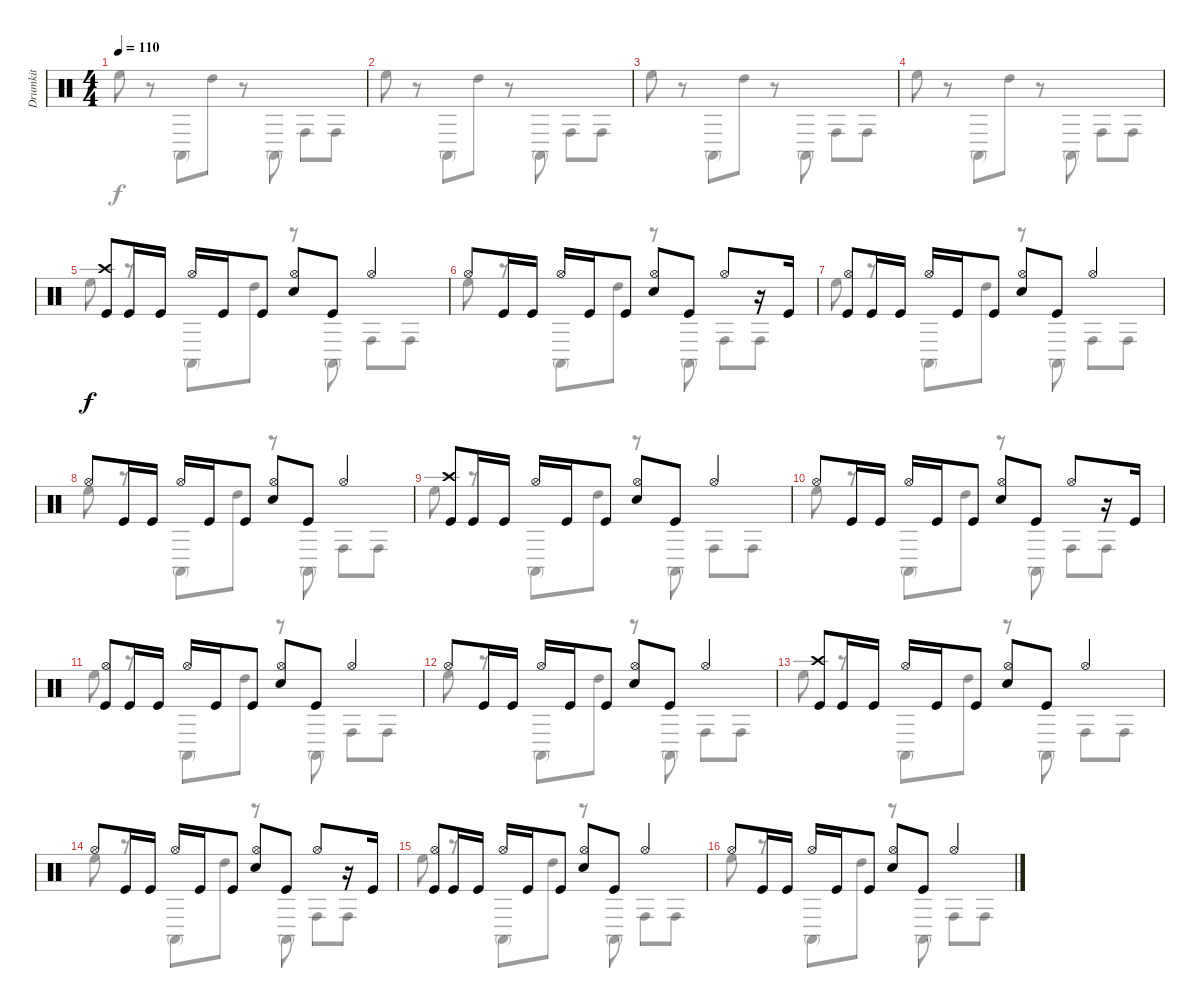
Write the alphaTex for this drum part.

\track ("Drumkit" "Drumkit") {instrument percussion}
\staff {score}
\articulation defaults
\voice
\ts (4 4)
\tempo 110
\clef neutral
\ks c
|
|
|
|
("Crash high (hit)" "Kick (hit)").8 "Kick (hit)".16 "Kick (hit)".16 "Hi-Hat (open)".16 "Kick (hit)".16 "Kick (hit)".8 ("Snare (hit) 2" "Hi-Hat (open)").8 "Kick (hit)".8 "Hi-Hat (open)".4 |
"Hi-Hat (open)".8 "Kick (hit)".16 "Kick (hit)".16 "Hi-Hat (open)".16 "Kick (hit)".16 "Kick (hit)".8 ("Snare (hit) 2" "Hi-Hat (open)").8 "Kick (hit)".8 "Hi-Hat (open)".8 r.16 "Kick (hit)".16 |
("Hi-Hat (open)" "Kick (hit)").8 "Kick (hit)".16 "Kick (hit)".16 "Hi-Hat (open)".16 "Kick (hit)".16 "Kick (hit)".8 ("Snare (hit) 2" "Hi-Hat (open)").8 "Kick (hit)".8 "Hi-Hat (open)".4 |
"Hi-Hat (open)".8 "Kick (hit)".16 "Kick (hit)".16 "Hi-Hat (open)".16 "Kick (hit)".16 "Kick (hit)".8 ("Snare (hit) 2" "Hi-Hat (open)").8 "Kick (hit)".8 "Hi-Hat (open)".4 |
("Crash high (hit)" "Kick (hit)").8 "Kick (hit)".16 "Kick (hit)".16 "Hi-Hat (open)".16 "Kick (hit)".16 "Kick (hit)".8 ("Snare (hit) 2" "Hi-Hat (open)").8 "Kick (hit)".8 "Hi-Hat (open)".4 |
"Hi-Hat (open)".8 "Kick (hit)".16 "Kick (hit)".16 "Hi-Hat (open)".16 "Kick (hit)".16 "Kick (hit)".8 ("Snare (hit) 2" "Hi-Hat (open)").8 "Kick (hit)".8 "Hi-Hat (open)".8 r.16 "Kick (hit)".16 |
("Hi-Hat (open)" "Kick (hit)").8 "Kick (hit)".16 "Kick (hit)".16 "Hi-Hat (open)".16 "Kick (hit)".16 "Kick (hit)".8 ("Snare (hit) 2" "Hi-Hat (open)").8 "Kick (hit)".8 "Hi-Hat (open)".4 |
"Hi-Hat (open)".8 "Kick (hit)".16 "Kick (hit)".16 "Hi-Hat (open)".16 "Kick (hit)".16 "Kick (hit)".8 ("Snare (hit) 2" "Hi-Hat (open)").8 "Kick (hit)".8 "Hi-Hat (open)".4 |
("Crash high (hit)" "Kick (hit)").8 "Kick (hit)".16 "Kick (hit)".16 "Hi-Hat (open)".16 "Kick (hit)".16 "Kick (hit)".8 ("Snare (hit) 2" "Hi-Hat (open)").8 "Kick (hit)".8 "Hi-Hat (open)".4 |
"Hi-Hat (open)".8 "Kick (hit)".16 "Kick (hit)".16 "Hi-Hat (open)".16 "Kick (hit)".16 "Kick (hit)".8 ("Snare (hit) 2" "Hi-Hat (open)").8 "Kick (hit)".8 "Hi-Hat (open)".8 r.16 "Kick (hit)".16 |
("Hi-Hat (open)" "Kick (hit)").8 "Kick (hit)".16 "Kick (hit)".16 "Hi-Hat (open)".16 "Kick (hit)".16 "Kick (hit)".8 ("Snare (hit) 2" "Hi-Hat (open)").8 "Kick (hit)".8 "Hi-Hat (open)".4 |
"Hi-Hat (open)".8 "Kick (hit)".16 "Kick (hit)".16 "Hi-Hat (open)".16 "Kick (hit)".16 "Kick (hit)".8 ("Snare (hit) 2" "Hi-Hat (open)").8 "Kick (hit)".8 "Hi-Hat (open)".4
\voice
\clef neutral
\ottava regular
\simile none
\ks c "High Floor Tom (hit)".8{dy f}
r.8 "Conga high (mute)".8 "High Tom (hit)".8 r.8 "Conga high (mute)".8 "Conga high (hit)".8 "Conga high (hit)".8 |
"High Floor Tom (hit)".8 r.8 "Conga high (mute)".8 "High Tom (hit)".8 r.8 "Conga high (mute)".8 "Conga high (hit)".8 "Conga high (hit)".8 |
"High Floor Tom (hit)".8 r.8 "Conga high (mute)".8 "High Tom (hit)".8 r.8 "Conga high (mute)".8 "Conga high (hit)".8 "Conga high (hit)".8 |
"High Floor Tom (hit)".8 r.8 "Conga high (mute)".8 "High Tom (hit)".8 r.8 "Conga high (mute)".8 "Conga high (hit)".8 "Conga high (hit)".8 |
"High Floor Tom (hit)".8 r.8 "Conga high (mute)".8 "High Tom (hit)".8 r.8 "Conga high (mute)".8 "Conga high (hit)".8 "Conga high (hit)".8 |
"High Floor Tom (hit)".8 r.8 "Conga high (mute)".8 "High Tom (hit)".8 r.8 "Conga high (mute)".8 "Conga high (hit)".8 "Conga high (hit)".8 |
"High Floor Tom (hit)".8 r.8 "Conga high (mute)".8 "High Tom (hit)".8 r.8 "Conga high (mute)".8 "Conga high (hit)".8 "Conga high (hit)".8 |
"High Floor Tom (hit)".8 r.8 "Conga high (mute)".8 "High Tom (hit)".8 r.8 "Conga high (mute)".8 "Conga high (hit)".8 "Conga high (hit)".8 |
"High Floor Tom (hit)".8 r.8 "Conga high (mute)".8 "High Tom (hit)".8 r.8 "Conga high (mute)".8 "Conga high (hit)".8 "Conga high (hit)".8 |
"High Floor Tom (hit)".8 r.8 "Conga high (mute)".8 "High Tom (hit)".8 r.8 "Conga high (mute)".8 "Conga high (hit)".8 "Conga high (hit)".8 |
"High Floor Tom (hit)".8 r.8 "Conga high (mute)".8 "High Tom (hit)".8 r.8 "Conga high (mute)".8 "Conga high (hit)".8 "Conga high (hit)".8 |
"High Floor Tom (hit)".8 r.8 "Conga high (mute)".8 "High Tom (hit)".8 r.8 "Conga high (mute)".8 "Conga high (hit)".8 "Conga high (hit)".8 |
"High Floor Tom (hit)".8 r.8 "Conga high (mute)".8 "High Tom (hit)".8 r.8 "Conga high (mute)".8 "Conga high (hit)".8 "Conga high (hit)".8 |
"High Floor Tom (hit)".8 r.8 "Conga high (mute)".8 "High Tom (hit)".8 r.8 "Conga high (mute)".8 "Conga high (hit)".8 "Conga high (hit)".8 |
"High Floor Tom (hit)".8 r.8 "Conga high (mute)".8 "High Tom (hit)".8 r.8 "Conga high (mute)".8 "Conga high (hit)".8 "Conga high (hit)".8 |
"High Floor Tom (hit)".8 r.8 "Conga high (mute)".8 "High Tom (hit)".8 r.8 "Conga high (mute)".8 "Conga high (hit)".8 "Conga high (hit)".8
